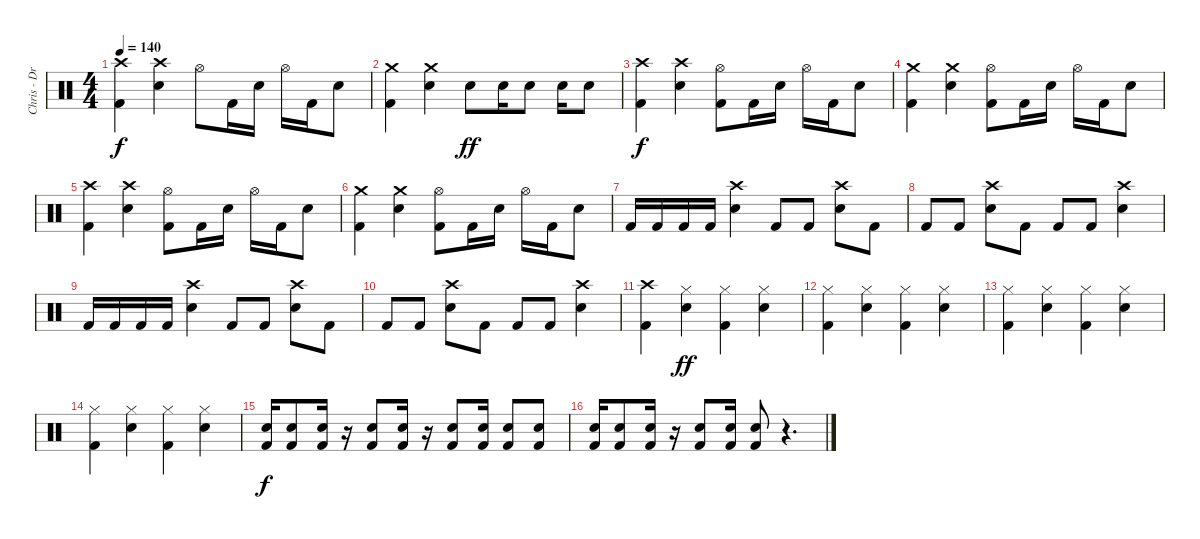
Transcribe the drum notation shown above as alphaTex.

\track ("Chris - Drums" "Chris - Dr") {instrument percussion}
\staff {score}
\articulation defaults
\ts (4 4)
\tempo 140
\clef neutral
\ks c
("Crash high (hit)" "Kick (hit) 2").4{dy f} ("Crash high (hit)" "Electric Snare (hit)").4 "Hi-Hat (open)".8 "Kick (hit) 2".16 "Electric Snare (hit)".16 "Hi-Hat (open)".16 "Kick (hit) 2".16 "Electric Snare (hit)".8 |
("Crash medium (hit)" "Kick (hit) 2").4 ("Crash medium (hit)" "Electric Snare (hit)").4 "Electric Snare (hit)".8{dy ff} "Electric Snare (hit)".16 "Electric Snare (hit)".8 "Electric Snare (hit)".16 "Electric Snare (hit)".8 |
("Crash high (hit)" "Kick (hit) 2").4{dy f} ("Crash high (hit)" "Electric Snare (hit)").4 ("Hi-Hat (open)" "Kick (hit) 2").8 "Kick (hit) 2".16 "Electric Snare (hit)".16 "Hi-Hat (open)".16 "Kick (hit) 2".16 "Electric Snare (hit)".8 |
("Crash medium (hit)" "Kick (hit) 2").4 ("Crash medium (hit)" "Electric Snare (hit)").4 ("Hi-Hat (open)" "Kick (hit) 2").8 "Kick (hit) 2".16 "Electric Snare (hit)".16 "Hi-Hat (open)".16 "Kick (hit) 2".16 "Electric Snare (hit)".8 |
("Crash high (hit)" "Kick (hit) 2").4 ("Crash high (hit)" "Electric Snare (hit)").4 ("Hi-Hat (open)" "Kick (hit) 2").8 "Kick (hit) 2".16 "Electric Snare (hit)".16 "Hi-Hat (open)".16 "Kick (hit) 2".16 "Electric Snare (hit)".8 |
("Crash medium (hit)" "Kick (hit) 2").4 ("Crash medium (hit)" "Electric Snare (hit)").4 ("Hi-Hat (open)" "Kick (hit) 2").8 "Kick (hit) 2".16 "Electric Snare (hit)".16 "Hi-Hat (open)".16 "Kick (hit) 2".16 "Electric Snare (hit)".8 |
"Kick (hit) 2".16 "Kick (hit) 2".16 "Kick (hit) 2".16 "Kick (hit) 2".16 ("Crash high (hit)" "Electric Snare (hit)").4 "Kick (hit) 2".8 "Kick (hit) 2".8 ("Crash high (hit)" "Electric Snare (hit)").8 "Kick (hit) 2".8 |
"Kick (hit) 2".8 "Kick (hit) 2".8 ("Crash high (hit)" "Electric Snare (hit)").8 "Kick (hit) 2".8 "Kick (hit) 2".8 "Kick (hit) 2".8 ("Crash high (hit)" "Electric Snare (hit)").4 |
"Kick (hit) 2".16 "Kick (hit) 2".16 "Kick (hit) 2".16 "Kick (hit) 2".16 ("Crash high (hit)" "Electric Snare (hit)").4 "Kick (hit) 2".8 "Kick (hit) 2".8 ("Crash high (hit)" "Electric Snare (hit)").8 "Kick (hit) 2".8 |
"Kick (hit) 2".8 "Kick (hit) 2".8 ("Crash high (hit)" "Electric Snare (hit)").8 "Kick (hit) 2".8 "Kick (hit) 2".8 "Kick (hit) 2".8 ("Crash high (hit)" "Electric Snare (hit)").4 |
("Crash high (hit)" "Kick (hit) 2").4 ("Hi-Hat (closed)" "Electric Snare (hit)").4{dy ff} ("Hi-Hat (closed)" "Kick (hit) 2").4 ("Hi-Hat (closed)" "Electric Snare (hit)").4 |
("Hi-Hat (closed)" "Kick (hit) 2").4 ("Hi-Hat (closed)" "Electric Snare (hit)").4 ("Hi-Hat (closed)" "Kick (hit) 2").4 ("Hi-Hat (closed)" "Electric Snare (hit)").4 |
("Hi-Hat (closed)" "Kick (hit) 2").4 ("Hi-Hat (closed)" "Electric Snare (hit)").4 ("Hi-Hat (closed)" "Kick (hit) 2").4 ("Hi-Hat (closed)" "Electric Snare (hit)").4 |
("Hi-Hat (closed)" "Kick (hit) 2").4 ("Hi-Hat (closed)" "Electric Snare (hit)").4 ("Hi-Hat (closed)" "Kick (hit) 2").4 ("Hi-Hat (closed)" "Electric Snare (hit)").4 |
("Electric Snare (hit)" "Kick (hit) 2").16{dy f} ("Electric Snare (hit)" "Kick (hit) 2").8 ("Electric Snare (hit)" "Kick (hit) 2").16 r.16 ("Electric Snare (hit)" "Kick (hit) 2").8 ("Electric Snare (hit)" "Kick (hit) 2").16 r.16 ("Electric Snare (hit)" "Kick (hit) 2").8 ("Electric Snare (hit)" "Kick (hit) 2").16 ("Electric Snare (hit)" "Kick (hit) 2").8 ("Electric Snare (hit)" "Kick (hit) 2").8 |
("Electric Snare (hit)" "Kick (hit) 2").16 ("Electric Snare (hit)" "Kick (hit) 2").8 ("Electric Snare (hit)" "Kick (hit) 2").16 r.16 ("Electric Snare (hit)" "Kick (hit) 2").8 ("Electric Snare (hit)" "Kick (hit) 2").16 ("Electric Snare (hit)" "Kick (hit) 2").8 r.4{d}
